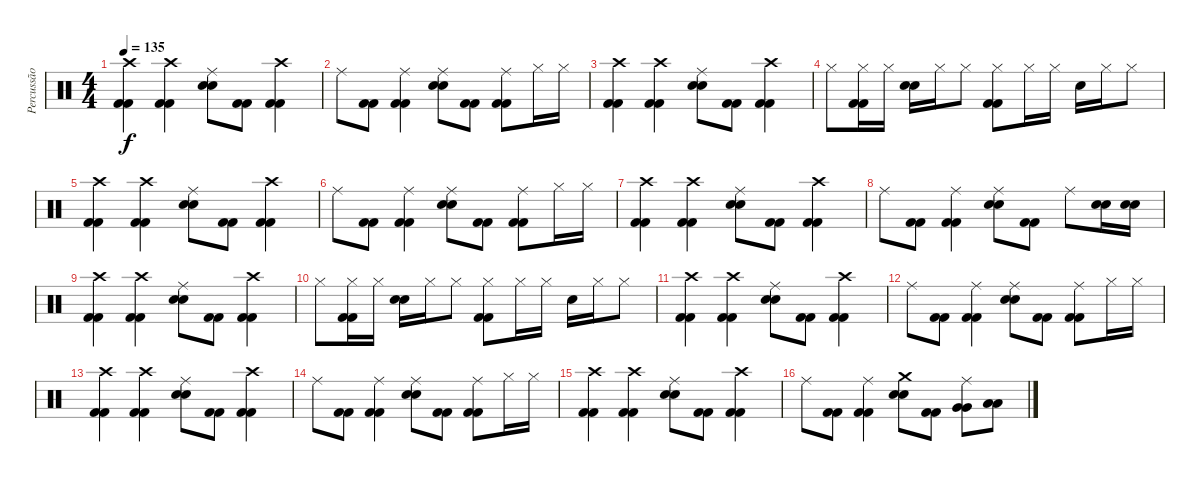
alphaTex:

\track ("Percussão" "Percussão") {instrument percussion}
\staff {score}
\articulation defaults
\ts (4 4)
\tempo 135
\clef neutral
\ks c
("Crash high (hit)" "Kick (hit) 2" "Kick (hit) 2").4{dy f} ("Crash high (hit)" "Kick (hit) 2" "Kick (hit) 2").4 ("Ride (middle)" "Electric Snare (hit)" "Electric Snare (hit)").8 ("Kick (hit) 2" "Kick (hit) 2").8 ("Crash high (hit)" "Kick (hit) 2" "Kick (hit) 2").4 |
"Ride (middle)".8 ("Kick (hit) 2" "Kick (hit) 2").8 ("Ride (middle)" "Kick (hit) 2" "Kick (hit) 2").4 ("Ride (middle)" "Electric Snare (hit)" "Electric Snare (hit)").8 ("Kick (hit) 2" "Kick (hit) 2").8 ("Ride (middle)" "Kick (hit) 2" "Kick (hit) 2").8 "Hi-Hat (closed)".16 "Hi-Hat (closed)".16 |
("Crash high (hit)" "Kick (hit) 2" "Kick (hit) 2").4 ("Crash high (hit)" "Kick (hit) 2" "Kick (hit) 2").4 ("Ride (middle)" "Electric Snare (hit)" "Electric Snare (hit)").8 ("Kick (hit) 2" "Kick (hit) 2").8 ("Crash high (hit)" "Kick (hit) 2" "Kick (hit) 2").4 |
"Hi-Hat (closed)".8 ("Hi-Hat (closed)" "Kick (hit) 2" "Kick (hit) 2").16 "Hi-Hat (closed)".16 ("Electric Snare (hit)" "Electric Snare (hit)").16 "Hi-Hat (closed)".16 "Hi-Hat (closed)".8 ("Hi-Hat (closed)" "Kick (hit) 2" "Kick (hit) 2").8 "Hi-Hat (closed)".16 "Hi-Hat (closed)".16 "Electric Snare (hit)".16 "Hi-Hat (closed)".16 "Hi-Hat (closed)".8 |
("Crash high (hit)" "Kick (hit) 2" "Kick (hit) 2").4 ("Crash high (hit)" "Kick (hit) 2" "Kick (hit) 2").4 ("Ride (middle)" "Electric Snare (hit)" "Electric Snare (hit)").8 ("Kick (hit) 2" "Kick (hit) 2").8 ("Crash high (hit)" "Kick (hit) 2" "Kick (hit) 2").4 |
"Ride (middle)".8 ("Kick (hit) 2" "Kick (hit) 2").8 ("Ride (middle)" "Kick (hit) 2" "Kick (hit) 2").4 ("Ride (middle)" "Electric Snare (hit)" "Electric Snare (hit)").8 ("Kick (hit) 2" "Kick (hit) 2").8 ("Ride (middle)" "Kick (hit) 2" "Kick (hit) 2").8 "Hi-Hat (closed)".16 "Hi-Hat (closed)".16 |
("Crash high (hit)" "Kick (hit) 2" "Kick (hit) 2").4 ("Crash high (hit)" "Kick (hit) 2" "Kick (hit) 2").4 ("Ride (middle)" "Electric Snare (hit)" "Electric Snare (hit)").8 ("Kick (hit) 2" "Kick (hit) 2").8 ("Crash high (hit)" "Kick (hit) 2" "Kick (hit) 2").4 |
"Ride (middle)".8 ("Kick (hit) 2" "Kick (hit) 2").8 ("Ride (middle)" "Kick (hit) 2" "Kick (hit) 2").4 ("Ride (middle)" "Electric Snare (hit)" "Electric Snare (hit)").8 ("Kick (hit) 2" "Kick (hit) 2").8 "Ride (middle)".8 ("Electric Snare (hit)" "Electric Snare (hit)").16 ("Electric Snare (hit)" "Electric Snare (hit)").16 |
("Crash high (hit)" "Kick (hit) 2" "Kick (hit) 2").4 ("Crash high (hit)" "Kick (hit) 2" "Kick (hit) 2").4 ("Ride (middle)" "Electric Snare (hit)" "Electric Snare (hit)").8 ("Kick (hit) 2" "Kick (hit) 2").8 ("Crash high (hit)" "Kick (hit) 2" "Kick (hit) 2").4 |
"Hi-Hat (closed)".8 ("Hi-Hat (closed)" "Kick (hit) 2" "Kick (hit) 2").16 "Hi-Hat (closed)".16 ("Electric Snare (hit)" "Electric Snare (hit)").16 "Hi-Hat (closed)".16 "Hi-Hat (closed)".8 ("Hi-Hat (closed)" "Kick (hit) 2" "Kick (hit) 2").8 "Hi-Hat (closed)".16 "Hi-Hat (closed)".16 "Electric Snare (hit)".16 "Hi-Hat (closed)".16 "Hi-Hat (closed)".8 |
("Crash high (hit)" "Kick (hit) 2" "Kick (hit) 2").4 ("Crash high (hit)" "Kick (hit) 2" "Kick (hit) 2").4 ("Ride (middle)" "Electric Snare (hit)" "Electric Snare (hit)").8 ("Kick (hit) 2" "Kick (hit) 2").8 ("Crash high (hit)" "Kick (hit) 2" "Kick (hit) 2").4 |
"Ride (middle)".8 ("Kick (hit) 2" "Kick (hit) 2").8 ("Ride (middle)" "Kick (hit) 2" "Kick (hit) 2").4 ("Ride (middle)" "Electric Snare (hit)" "Electric Snare (hit)").8 ("Kick (hit) 2" "Kick (hit) 2").8 ("Ride (middle)" "Kick (hit) 2" "Kick (hit) 2").8 "Hi-Hat (closed)".16 "Hi-Hat (closed)".16 |
("Crash high (hit)" "Kick (hit) 2" "Kick (hit) 2").4 ("Crash high (hit)" "Kick (hit) 2" "Kick (hit) 2").4 ("Ride (middle)" "Electric Snare (hit)" "Electric Snare (hit)").8 ("Kick (hit) 2" "Kick (hit) 2").8 ("Crash high (hit)" "Kick (hit) 2" "Kick (hit) 2").4 |
"Ride (middle)".8 ("Kick (hit) 2" "Kick (hit) 2").8 ("Ride (middle)" "Kick (hit) 2" "Kick (hit) 2").4 ("Ride (middle)" "Electric Snare (hit)" "Electric Snare (hit)").8 ("Kick (hit) 2" "Kick (hit) 2").8 ("Ride (middle)" "Kick (hit) 2" "Kick (hit) 2").8 "Hi-Hat (closed)".16 "Hi-Hat (closed)".16 |
("Crash high (hit)" "Kick (hit) 2" "Kick (hit) 2").4 ("Crash high (hit)" "Kick (hit) 2" "Kick (hit) 2").4 ("Ride (middle)" "Electric Snare (hit)" "Electric Snare (hit)").8 ("Kick (hit) 2" "Kick (hit) 2").8 ("Crash high (hit)" "Kick (hit) 2" "Kick (hit) 2").4 |
"Ride (middle)".8 ("Kick (hit) 2" "Kick (hit) 2").8 ("Ride (middle)" "Kick (hit) 2" "Kick (hit) 2").4 ("Crash medium (hit)" "Electric Snare (hit)" "Electric Snare (hit)").8 ("Kick (hit) 2" "Kick (hit) 2").8 ("Ride (middle)" "Very Low Tom (hit)" "Very Low Tom (hit)").8 ("Low Tom (hit)" "Low Tom (hit)").8
